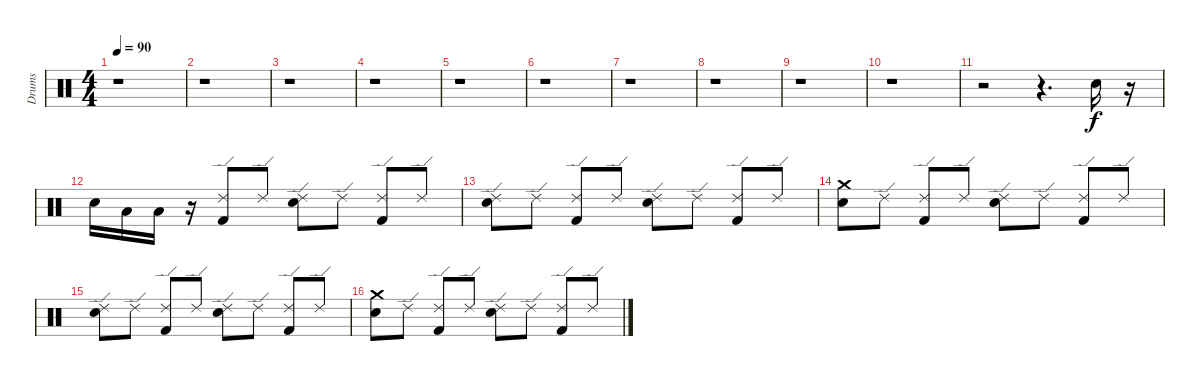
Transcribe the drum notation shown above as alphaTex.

\track ("Drums" "Drums") {instrument percussion}
\staff {score}
\articulation defaults
\ts (4 4)
\tempo 90
\clef neutral
\ks c
r.1{dy f} |
r.1 |
r.1 |
r.1 |
r.1 |
r.1 |
r.1 |
r.1 |
r.1 |
r.1 |
r.2 r.4{d} "Electric Snare (hit)".16 r.16 |
"Electric Snare (hit)".16 "Low Tom (hit)".16 "Low Floor Tom (hit)".16 r.16 ("Ride (edge) 2" "Kick (hit) 2").8 "Ride (edge) 2".8 ("Ride (edge) 2" "Electric Snare (hit)").8 "Ride (edge) 2".8 ("Ride (edge) 2" "Kick (hit) 2").8 "Ride (edge) 2".8 |
("Ride (edge) 2" "Electric Snare (hit)").8 "Ride (edge) 2".8 ("Ride (edge) 2" "Kick (hit) 2").8 "Ride (edge) 2".8 ("Ride (edge) 2" "Electric Snare (hit)").8 "Ride (edge) 2".8 ("Ride (edge) 2" "Kick (hit) 2").8 "Ride (edge) 2".8 |
("Crash medium (hit)" "Electric Snare (hit)").8 "Ride (edge) 2".8 ("Ride (edge) 2" "Kick (hit) 2").8 "Ride (edge) 2".8 ("Ride (edge) 2" "Electric Snare (hit)").8 "Ride (edge) 2".8 ("Ride (edge) 2" "Kick (hit) 2").8 "Ride (edge) 2".8 |
("Ride (edge) 2" "Electric Snare (hit)").8 "Ride (edge) 2".8 ("Ride (edge) 2" "Kick (hit) 2").8 "Ride (edge) 2".8 ("Ride (edge) 2" "Electric Snare (hit)").8 "Ride (edge) 2".8 ("Ride (edge) 2" "Kick (hit) 2").8 "Ride (edge) 2".8 |
("Crash medium (hit)" "Electric Snare (hit)").8 "Ride (edge) 2".8 ("Ride (edge) 2" "Kick (hit) 2").8 "Ride (edge) 2".8 ("Ride (edge) 2" "Electric Snare (hit)").8 "Ride (edge) 2".8 ("Ride (edge) 2" "Kick (hit) 2").8 "Ride (edge) 2".8
